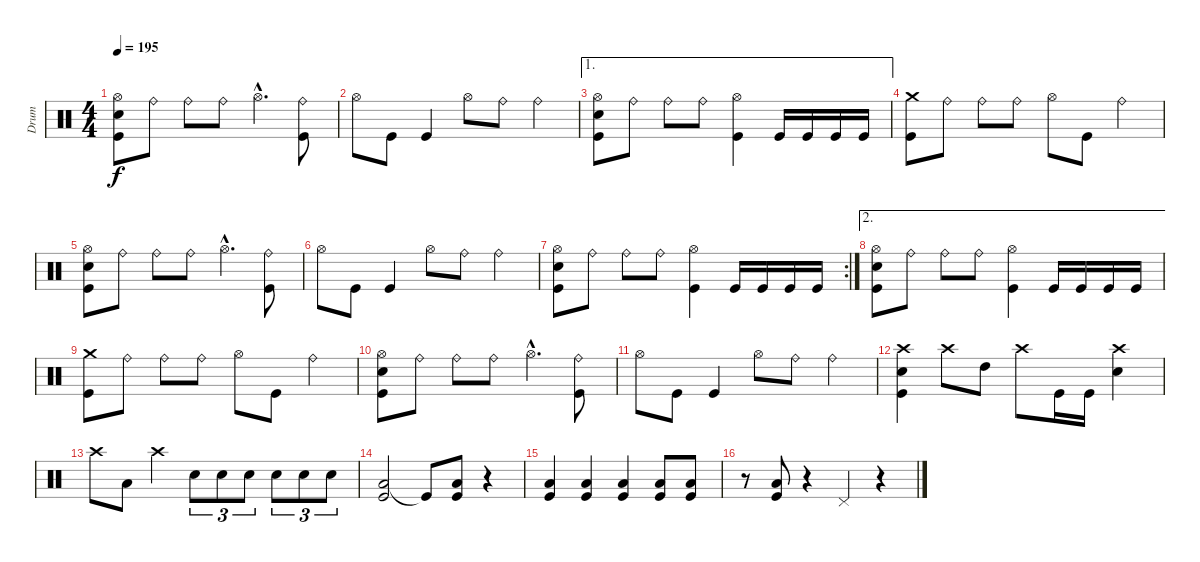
\track ("Drum" "Drum") {instrument percussion}
\staff {score}
\articulation defaults
\ts (4 4)
\tempo 195
\clef neutral
\ks c
("Hi-Hat (open)" "Snare (hit) 2" "Kick (hit)").8{dy f} "Ride (bell)".8 "Ride (bell)".8 "Ride (bell)".8 "Hi-Hat (open)"{hac}.4{d} ("Ride (bell)" "Kick (hit)").8 |
"Hi-Hat (open)".8 "Kick (hit)".8 "Kick (hit)".4 "Hi-Hat (open)".8 "Ride (bell)".8 "Ride (bell)".4 |
\ae 1
("Hi-Hat (open)" "Snare (hit) 2" "Kick (hit)").8 "Ride (bell)".8 "Ride (bell)".8 "Ride (bell)".8 ("Hi-Hat (open)" "Kick (hit)").4 "Kick (hit)".16 "Kick (hit)".16 "Kick (hit)".16 "Kick (hit)".16 |
("Crash medium (hit)" "Kick (hit)").8 "Ride (bell)".8 "Ride (bell)".8 "Ride (bell)".8 "Hi-Hat (open)".8 "Kick (hit)".8 "Ride (bell)".4 |
("Hi-Hat (open)" "Snare (hit) 2" "Kick (hit)").8 "Ride (bell)".8 "Ride (bell)".8 "Ride (bell)".8 "Hi-Hat (open)"{hac}.4{d} ("Ride (bell)" "Kick (hit)").8 |
"Hi-Hat (open)".8 "Kick (hit)".8 "Kick (hit)".4 "Hi-Hat (open)".8 "Ride (bell)".8 "Ride (bell)".4 |
\rc 2
("Hi-Hat (open)" "Snare (hit) 2" "Kick (hit)").8 "Ride (bell)".8 "Ride (bell)".8 "Ride (bell)".8 ("Hi-Hat (open)" "Kick (hit)").4 "Kick (hit)".16 "Kick (hit)".16 "Kick (hit)".16 "Kick (hit)".16 |
\ae 2
("Hi-Hat (open)" "Snare (hit) 2" "Kick (hit)").8 "Ride (bell)".8 "Ride (bell)".8 "Ride (bell)".8 ("Hi-Hat (open)" "Kick (hit)").4 "Kick (hit)".16 "Kick (hit)".16 "Kick (hit)".16 "Kick (hit)".16 |
("Crash medium (hit)" "Kick (hit)").8 "Ride (bell)".8 "Ride (bell)".8 "Ride (bell)".8 "Hi-Hat (open)".8 "Kick (hit)".8 "Ride (bell)".4 |
("Hi-Hat (open)" "Snare (hit) 2" "Kick (hit)").8 "Ride (bell)".8 "Ride (bell)".8 "Ride (bell)".8 "Hi-Hat (open)"{hac}.4{d} ("Ride (bell)" "Kick (hit)").8 |
"Hi-Hat (open)".8 "Kick (hit)".8 "Kick (hit)".4 "Hi-Hat (open)".8 "Ride (bell)".8 "Ride (bell)".4 |
("Crash high (hit)" "Snare (hit) 2" "Kick (hit)").4 "Crash high (hit)".8 "High Tom (hit)".8 "Crash high (hit)".8 "Kick (hit)".16 "Kick (hit)".16 ("Crash high (hit)" "Snare (hit) 2").4 |
"Crash high (hit)".8 "Low Tom (hit)".8 "Crash high (hit)".4 "Snare (hit) 2".8{tu (3 2)} "Snare (hit) 2".8{tu (3 2)} "Snare (hit) 2".8{tu (3 2)} "Snare (hit) 2".8{tu (3 2)} "Snare (hit) 2".8{tu (3 2)} "Snare (hit) 2".8{tu (3 2)} |
("Low Floor Tom (hit)" "Kick (hit)").2 "Kick (hit)"{t}.8 ("Low Floor Tom (hit)" "Kick (hit)").8 r.4 |
("Low Floor Tom (hit)" "Kick (hit)").4 ("Low Floor Tom (hit)" "Kick (hit)").4 ("Low Floor Tom (hit)" "Kick (hit)").4 ("Low Floor Tom (hit)" "Kick (hit)").8 ("Low Floor Tom (hit)" "Kick (hit)").8 |
r.8 ("Low Floor Tom (hit)" "Kick (hit)").8 r.4 "Pedal Hi-Hat (hit)".4 r.4
